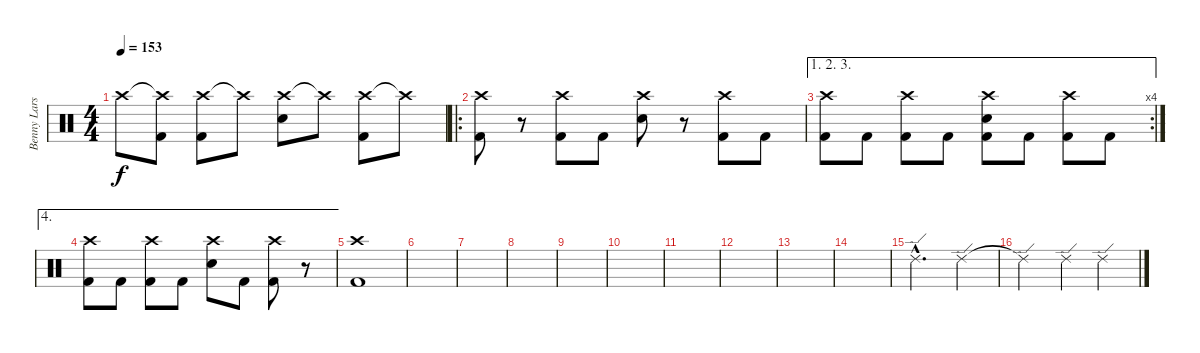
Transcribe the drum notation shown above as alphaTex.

\track ("Benny Larsson" "Benny Lars") {instrument percussion}
\staff {score}
\articulation defaults
\ts (4 4)
\tempo 153
\clef neutral
\ks c "Crash high (hit)".8{dy f}
("Crash high (hit)"{t} "Kick (hit) 2").8 ("Crash high (hit)" "Kick (hit) 2").8 "Crash high (hit)"{t}.8 ("Crash high (hit)" "Electric Snare (hit)").8 "Crash high (hit)"{t}.8 ("Crash high (hit)" "Kick (hit) 2").8 "Crash high (hit)"{t}.8 |
\ro
("Crash high (hit)" "Kick (hit) 2").8 r.8 ("Crash high (hit)" "Kick (hit) 2").8 "Kick (hit) 2".8 ("Crash high (hit)" "Electric Snare (hit)").8 r.8 ("Crash high (hit)" "Kick (hit) 2").8 "Kick (hit) 2".8 |
\ae (1 2 3)
\rc 4
("Crash high (hit)" "Kick (hit) 2").8 "Kick (hit) 2".8 ("Crash high (hit)" "Kick (hit) 2").8 "Kick (hit) 2".8 ("Crash high (hit)" "Electric Snare (hit)" "Kick (hit) 2").8 "Kick (hit) 2".8 ("Crash high (hit)" "Kick (hit) 2").8 "Kick (hit) 2".8 |
\ae 4
("Crash high (hit)" "Kick (hit) 2").8 "Kick (hit) 2".8 ("Crash high (hit)" "Kick (hit) 2").8 "Kick (hit) 2".8 ("Crash high (hit)" "Electric Snare (hit)").8 "Kick (hit) 2".8 ("Crash high (hit)" "Kick (hit) 2").8 r.8 |
("Crash high (hit)" "Kick (hit) 2").1 |
|
|
|
|
|
|
|
|
|
"Ride (edge) 2"{hac}.2{d volume 10} "Ride (edge) 2".4 |
"Ride (edge) 2"{t}.2 "Ride (edge) 2".4 "Ride (edge) 2".4
